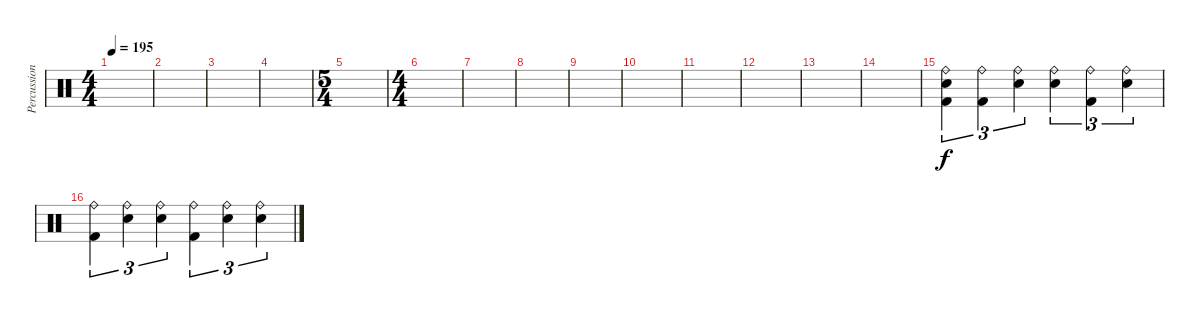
\track ("Percussion" "Percussion") {instrument percussion}
\staff {score}
\articulation defaults
\ts (4 4)
\tempo 195
\clef neutral
\ks c
|
|
|
|
\ts (5 4)
|
\ts (4 4)
|
|
|
|
|
|
|
|
|
("Ride (bell)" "Electric Snare (hit)" "Kick (hit) 2").4{tu (3 2)} ("Ride (bell)" "Kick (hit) 2").4{tu (3 2)} ("Ride (bell)" "Electric Snare (hit)").4{tu (3 2)} ("Ride (bell)" "Electric Snare (hit)").4{tu (3 2)} ("Ride (bell)" "Kick (hit) 2").4{tu (3 2)} ("Ride (bell)" "Electric Snare (hit)").4{tu (3 2)} |
("Ride (bell)" "Kick (hit) 2").4{tu (3 2)} ("Ride (bell)" "Electric Snare (hit)").4{tu (3 2)} ("Ride (bell)" "Electric Snare (hit)").4{tu (3 2)} ("Ride (bell)" "Kick (hit) 2").4{tu (3 2)} ("Ride (bell)" "Electric Snare (hit)").4{tu (3 2)} ("Ride (bell)" "Electric Snare (hit)").4{tu (3 2)}
